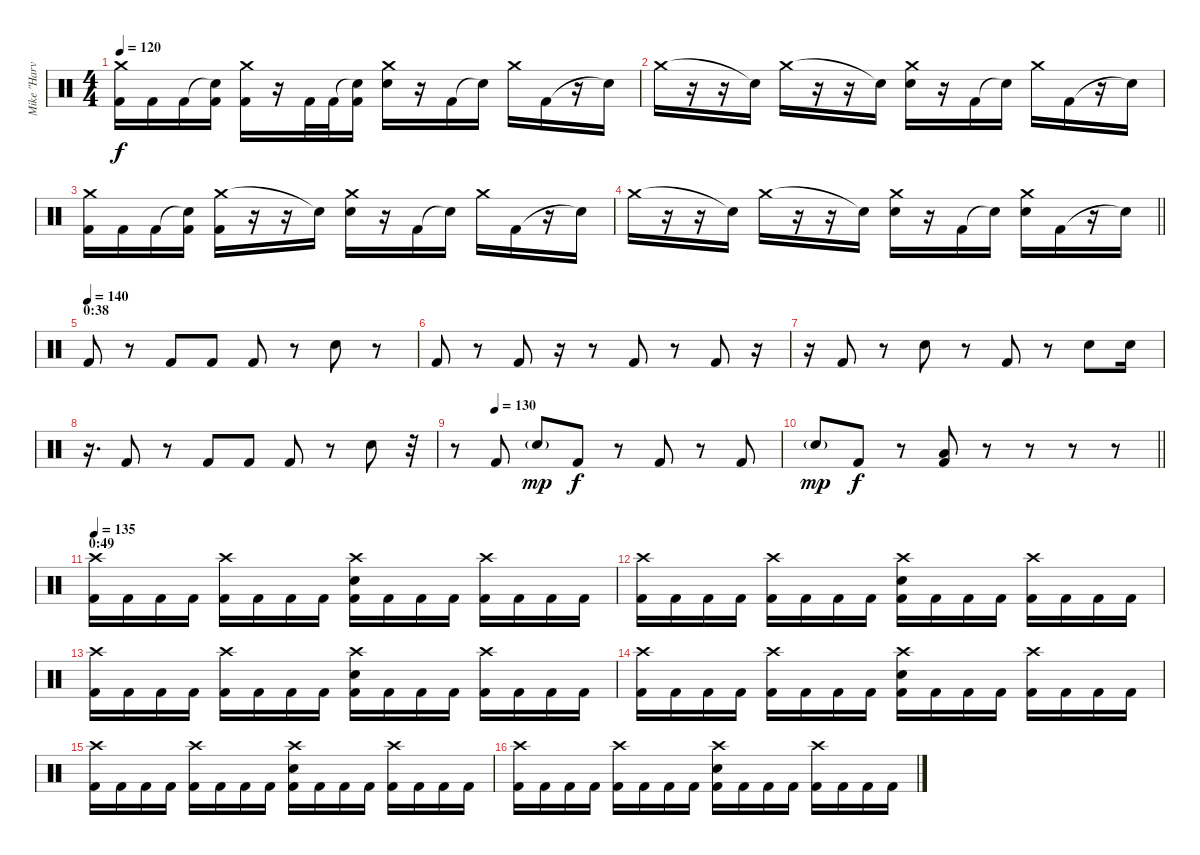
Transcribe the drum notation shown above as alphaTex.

\track ("Mike \"Harvey\" Kaabe" "Mike \"Harv") {instrument percussion}
\staff {score}
\articulation defaults
\ts (4 4)
\tempo 120
\clef neutral
\ks c
("Crash medium (hit)" "Kick (hit) 2").16{dy f} "Kick (hit) 2".16 "Kick (hit) 2".16 ("Snare (hit)"{t} "Kick (hit) 2").16 ("Crash medium (hit)" "Kick (hit) 2").16 r.16 "Kick (hit) 2".32 "Kick (hit) 2".32 ("Snare (hit)"{t} "Kick (hit) 2").16 ("Crash medium (hit)" "Electric Snare (hit)").16 r.16 "Kick (hit) 2".16 "Snare (hit)"{t}.16 "Crash medium (hit)".16 "Kick (hit) 2".16 r.16 "Snare (hit)"{t}.16 |
"Crash medium (hit)".16 r.16 r.16 "Snare (hit)"{t}.16 "Crash medium (hit)".16 r.16 r.16 "Snare (hit)"{t}.16 ("Crash medium (hit)" "Electric Snare (hit)").16 r.16 "Kick (hit) 2".16 "Snare (hit)"{t}.16 "Crash medium (hit)".16 "Kick (hit) 2".16 r.16 "Snare (hit)"{t}.16 |
("Crash medium (hit)" "Kick (hit) 2").16 "Kick (hit) 2".16 "Kick (hit) 2".16 ("Snare (hit)"{t} "Kick (hit) 2").16 ("Crash medium (hit)" "Kick (hit) 2").16 r.16 r.16 "Snare (hit)"{t}.16 ("Crash medium (hit)" "Electric Snare (hit)").16 r.16 "Kick (hit) 2".16 "Snare (hit)"{t}.16 "Crash medium (hit)".16 "Kick (hit) 2".16 r.16 "Snare (hit)"{t}.16 |
\barLineRight lightlight "Crash medium (hit)".16
r.16 r.16 "Snare (hit)"{t}.16 "Crash medium (hit)".16 r.16 r.16 "Snare (hit)"{t}.16 ("Crash medium (hit)" "Electric Snare (hit)").16 r.16 "Kick (hit) 2".16 "Snare (hit)"{t}.16 ("Crash medium (hit)" "Electric Snare (hit)").16 "Kick (hit) 2".16 r.16 "Snare (hit)"{t}.16 |
\section ("" "0:38")
\tempo (140)
"Kick (hit) 2".8 r.8 "Kick (hit) 2".8 "Kick (hit) 2".8 "Kick (hit) 2".8 r.8 "Snare (hit) 2".8 r.8 |
"Kick (hit) 2".8 r.8 "Kick (hit) 2".8 r.16 r.8 "Kick (hit) 2".8 r.8 "Kick (hit) 2".8 r.16 |
r.16 "Kick (hit) 2".8 r.8 "Snare (hit) 2".8 r.8 "Kick (hit) 2".8 r.8 "Snare (hit) 2".8 "Snare (hit) 2".16 |
r.16{d} "Kick (hit) 2".8 r.8 "Kick (hit) 2".8 "Kick (hit) 2".8 "Kick (hit) 2".8 r.8 "Snare (hit) 2".8 r.32 |
\tempo (130 0.125)
r.8 "Kick (hit) 2".8 "Snare (hit) 2"{g}.8{dy mp} "Kick (hit) 2".8{dy f} r.8 "Kick (hit) 2".8 r.8 "Kick (hit) 2".8 |
\barLineRight lightlight "Snare (hit) 2"{g}.8{dy mp} "Kick (hit) 2".8{dy f}
r.8 ("Low Tom (hit)" "Kick (hit) 2").8 r.8 r.8 r.8 r.8 |
\section ("" "0:49")
\tempo 135
("Crash high (hit)" "Kick (hit) 2").16 "Kick (hit) 2".16 "Kick (hit) 2".16 "Kick (hit) 2".16 ("Crash high (hit)" "Kick (hit) 2").16 "Kick (hit) 2".16 "Kick (hit) 2".16 "Kick (hit) 2".16 ("Crash high (hit)" "Electric Snare (hit)" "Kick (hit) 2").16 "Kick (hit) 2".16 "Kick (hit) 2".16 "Kick (hit) 2".16 ("Crash high (hit)" "Kick (hit) 2").16 "Kick (hit) 2".16 "Kick (hit) 2".16 "Kick (hit) 2".16 |
("Crash high (hit)" "Kick (hit) 2").16 "Kick (hit) 2".16 "Kick (hit) 2".16 "Kick (hit) 2".16 ("Crash high (hit)" "Kick (hit) 2").16 "Kick (hit) 2".16 "Kick (hit) 2".16 "Kick (hit) 2".16 ("Crash high (hit)" "Electric Snare (hit)" "Kick (hit) 2").16 "Kick (hit) 2".16 "Kick (hit) 2".16 "Kick (hit) 2".16 ("Crash high (hit)" "Kick (hit) 2").16 "Kick (hit) 2".16 "Kick (hit) 2".16 "Kick (hit) 2".16 |
("Crash high (hit)" "Kick (hit) 2").16 "Kick (hit) 2".16 "Kick (hit) 2".16 "Kick (hit) 2".16 ("Crash high (hit)" "Kick (hit) 2").16 "Kick (hit) 2".16 "Kick (hit) 2".16 "Kick (hit) 2".16 ("Crash high (hit)" "Electric Snare (hit)" "Kick (hit) 2").16 "Kick (hit) 2".16 "Kick (hit) 2".16 "Kick (hit) 2".16 ("Crash high (hit)" "Kick (hit) 2").16 "Kick (hit) 2".16 "Kick (hit) 2".16 "Kick (hit) 2".16 |
("Crash high (hit)" "Kick (hit) 2").16 "Kick (hit) 2".16 "Kick (hit) 2".16 "Kick (hit) 2".16 ("Crash high (hit)" "Kick (hit) 2").16 "Kick (hit) 2".16 "Kick (hit) 2".16 "Kick (hit) 2".16 ("Crash high (hit)" "Electric Snare (hit)" "Kick (hit) 2").16 "Kick (hit) 2".16 "Kick (hit) 2".16 "Kick (hit) 2".16 ("Crash high (hit)" "Kick (hit) 2").16 "Kick (hit) 2".16 "Kick (hit) 2".16 "Kick (hit) 2".16 |
("Crash high (hit)" "Kick (hit) 2").16 "Kick (hit) 2".16 "Kick (hit) 2".16 "Kick (hit) 2".16 ("Crash high (hit)" "Kick (hit) 2").16 "Kick (hit) 2".16 "Kick (hit) 2".16 "Kick (hit) 2".16 ("Crash high (hit)" "Electric Snare (hit)" "Kick (hit) 2").16 "Kick (hit) 2".16 "Kick (hit) 2".16 "Kick (hit) 2".16 ("Crash high (hit)" "Kick (hit) 2").16 "Kick (hit) 2".16 "Kick (hit) 2".16 "Kick (hit) 2".16 |
("Crash high (hit)" "Kick (hit) 2").16 "Kick (hit) 2".16 "Kick (hit) 2".16 "Kick (hit) 2".16 ("Crash high (hit)" "Kick (hit) 2").16 "Kick (hit) 2".16 "Kick (hit) 2".16 "Kick (hit) 2".16 ("Crash high (hit)" "Electric Snare (hit)" "Kick (hit) 2").16 "Kick (hit) 2".16 "Kick (hit) 2".16 "Kick (hit) 2".16 ("Crash high (hit)" "Kick (hit) 2").16 "Kick (hit) 2".16 "Kick (hit) 2".16 "Kick (hit) 2".16
